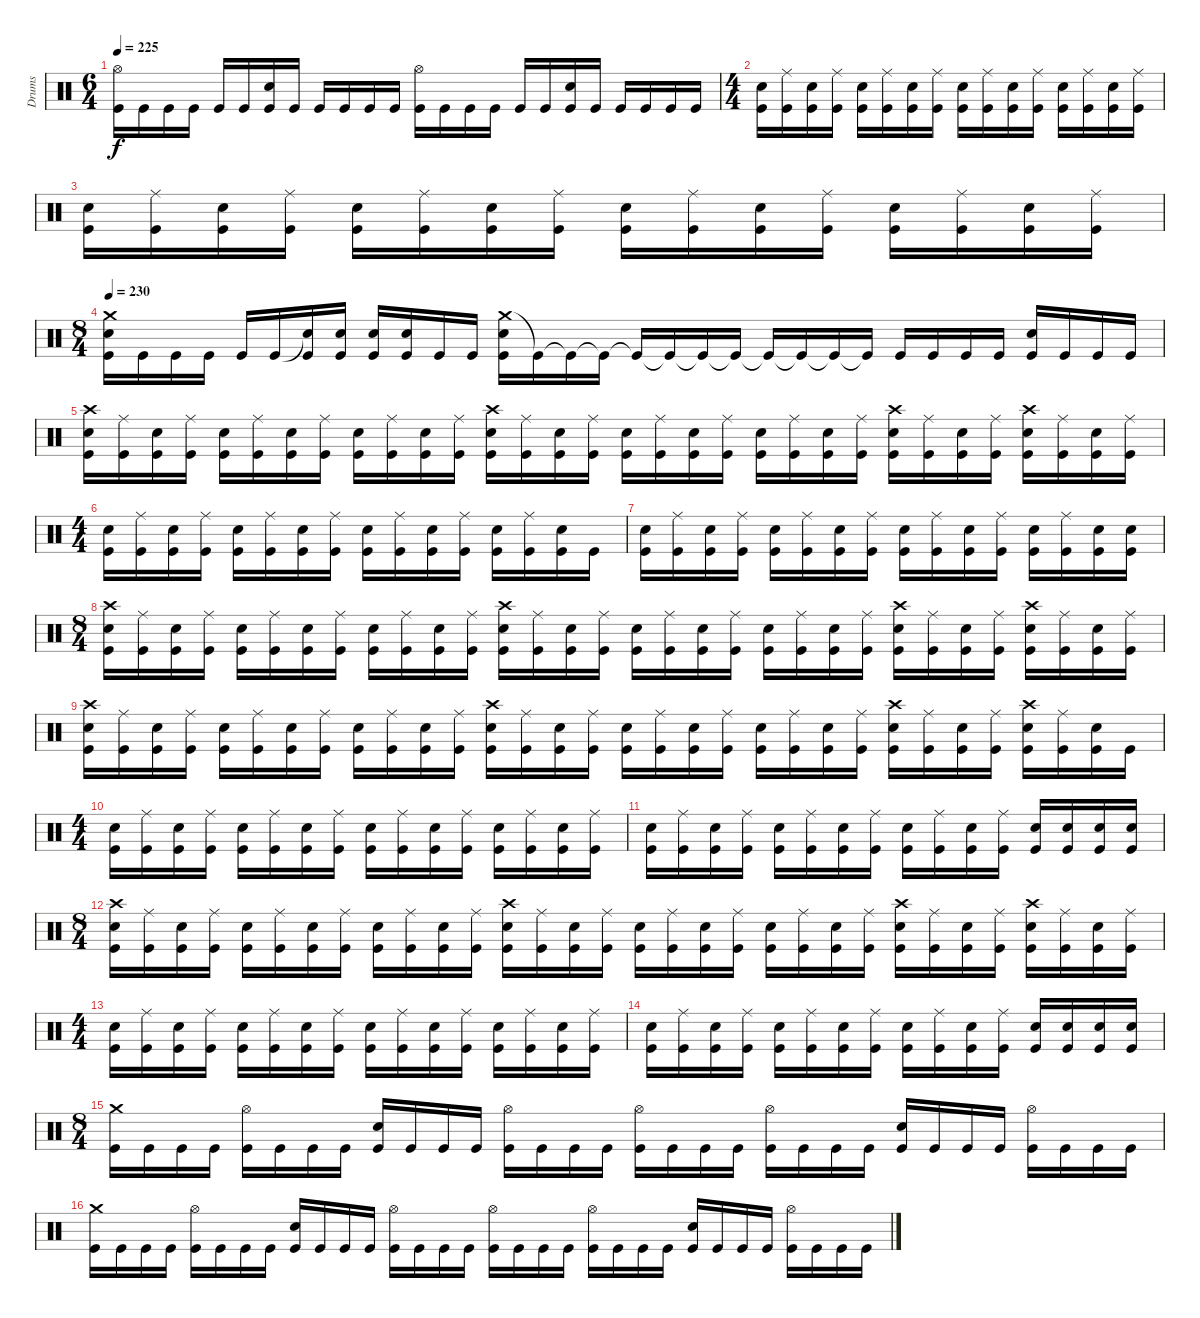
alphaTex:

\track ("Drums" "Drums") {instrument percussion}
\staff {score}
\articulation defaults
\ts (6 4)
\tempo 225
\clef neutral
\ks c
("Hi-Hat (open)" "Kick (hit)").16{dy f} "Kick (hit)".16 "Kick (hit)".16 "Kick (hit)".16 "Kick (hit)".16 "Kick (hit)".16 ("Electric Snare (hit)" "Kick (hit)").16 "Kick (hit)".16 "Kick (hit)".16 "Kick (hit)".16 "Kick (hit)".16 "Kick (hit)".16 ("Hi-Hat (open)" "Kick (hit)").16 "Kick (hit)".16 "Kick (hit)".16 "Kick (hit)".16 "Kick (hit)".16 "Kick (hit)".16 ("Electric Snare (hit)" "Kick (hit)").16 "Kick (hit)".16 "Kick (hit)".16 "Kick (hit)".16 "Kick (hit)".16 "Kick (hit)".16 |
\ts (4 4)
("Electric Snare (hit)" "Kick (hit)").16 ("Ride (middle)" "Kick (hit)").16 ("Electric Snare (hit)" "Kick (hit)").16 ("Ride (middle)" "Kick (hit)").16 ("Electric Snare (hit)" "Kick (hit)").16 ("Ride (middle)" "Kick (hit)").16 ("Electric Snare (hit)" "Kick (hit)").16 ("Ride (middle)" "Kick (hit)").16 ("Electric Snare (hit)" "Kick (hit)").16 ("Ride (middle)" "Kick (hit)").16 ("Electric Snare (hit)" "Kick (hit)").16 ("Ride (middle)" "Kick (hit)").16 ("Electric Snare (hit)" "Kick (hit)").16 ("Ride (middle)" "Kick (hit)").16 ("Electric Snare (hit)" "Kick (hit)").16 ("Ride (middle)" "Kick (hit)").16 |
("Electric Snare (hit)" "Kick (hit)").16 ("Ride (middle)" "Kick (hit)").16 ("Electric Snare (hit)" "Kick (hit)").16 ("Ride (middle)" "Kick (hit)").16 ("Electric Snare (hit)" "Kick (hit)").16 ("Ride (middle)" "Kick (hit)").16 ("Electric Snare (hit)" "Kick (hit)").16 ("Ride (middle)" "Kick (hit)").16 ("Electric Snare (hit)" "Kick (hit)").16 ("Ride (middle)" "Kick (hit)").16 ("Electric Snare (hit)" "Kick (hit)").16 ("Ride (middle)" "Kick (hit)").16 ("Electric Snare (hit)" "Kick (hit)").16 ("Ride (middle)" "Kick (hit)").16 ("Electric Snare (hit)" "Kick (hit)").16 ("Ride (middle)" "Kick (hit)").16 |
\ts (8 4)
\tempo 230
("Crash medium (hit)" "Electric Snare (hit)" "Kick (hit)").16 "Kick (hit)".16 "Kick (hit)".16 "Kick (hit)".16 "Kick (hit)".16 "Kick (hit)".16 ("Electric Snare (hit)"{t} "Kick (hit)").16 ("Electric Snare (hit)" "Kick (hit)").16 ("Electric Snare (hit)" "Kick (hit)").16 ("Electric Snare (hit)" "Kick (hit)").16 "Kick (hit)".16 "Kick (hit)".16 ("Crash medium (hit)" "Electric Snare (hit)" "Kick (hit)").16 "Kick (hit)"{t}.16 "Kick (hit)"{t}.16 "Kick (hit)"{t}.16 "Kick (hit)"{t}.16 "Kick (hit)"{t}.16 "Kick (hit)"{t}.16 "Kick (hit)"{t}.16 "Kick (hit)"{t}.16 "Kick (hit)"{t}.16 "Kick (hit)"{t}.16 "Kick (hit)"{t}.16 "Kick (hit)".16 "Kick (hit)".16 "Kick (hit)".16 "Kick (hit)".16 ("Electric Snare (hit)" "Kick (hit)").16 "Kick (hit)".16 "Kick (hit)".16 "Kick (hit)".16 |
("Crash high (hit)" "Electric Snare (hit)" "Kick (hit)").16 ("Ride (middle)" "Kick (hit)").16 ("Electric Snare (hit)" "Kick (hit)").16 ("Ride (middle)" "Kick (hit)").16 ("Electric Snare (hit)" "Kick (hit)").16 ("Ride (middle)" "Kick (hit)").16 ("Electric Snare (hit)" "Kick (hit)").16 ("Ride (middle)" "Kick (hit)").16 ("Electric Snare (hit)" "Kick (hit)").16 ("Ride (middle)" "Kick (hit)").16 ("Electric Snare (hit)" "Kick (hit)").16 ("Ride (middle)" "Kick (hit)").16 ("Crash high (hit)" "Electric Snare (hit)" "Kick (hit)").16 ("Ride (middle)" "Kick (hit)").16 ("Electric Snare (hit)" "Kick (hit)").16 ("Ride (middle)" "Kick (hit)").16 ("Electric Snare (hit)" "Kick (hit)").16 ("Ride (middle)" "Kick (hit)").16 ("Electric Snare (hit)" "Kick (hit)").16 ("Ride (middle)" "Kick (hit)").16 ("Electric Snare (hit)" "Kick (hit)").16 ("Ride (middle)" "Kick (hit)").16 ("Electric Snare (hit)" "Kick (hit)").16 ("Ride (middle)" "Kick (hit)").16 ("Crash high (hit)" "Electric Snare (hit)" "Kick (hit)").16 ("Ride (middle)" "Kick (hit)").16 ("Electric Snare (hit)" "Kick (hit)").16 ("Ride (middle)" "Kick (hit)").16 ("Crash high (hit)" "Electric Snare (hit)" "Kick (hit)").16 ("Ride (middle)" "Kick (hit)").16 ("Electric Snare (hit)" "Kick (hit)").16 ("Ride (middle)" "Kick (hit)").16 |
\ts (4 4)
("Electric Snare (hit)" "Kick (hit)").16 ("Ride (middle)" "Kick (hit)").16 ("Electric Snare (hit)" "Kick (hit)").16 ("Ride (middle)" "Kick (hit)").16 ("Electric Snare (hit)" "Kick (hit)").16 ("Ride (middle)" "Kick (hit)").16 ("Electric Snare (hit)" "Kick (hit)").16 ("Ride (middle)" "Kick (hit)").16 ("Electric Snare (hit)" "Kick (hit)").16 ("Ride (middle)" "Kick (hit)").16 ("Electric Snare (hit)" "Kick (hit)").16 ("Ride (middle)" "Kick (hit)").16 ("Electric Snare (hit)" "Kick (hit)").16 ("Ride (middle)" "Kick (hit)").16 ("Electric Snare (hit)" "Kick (hit)").16 "Kick (hit)".16 |
("Electric Snare (hit)" "Kick (hit)").16 ("Ride (middle)" "Kick (hit)").16 ("Electric Snare (hit)" "Kick (hit)").16 ("Ride (middle)" "Kick (hit)").16 ("Electric Snare (hit)" "Kick (hit)").16 ("Ride (middle)" "Kick (hit)").16 ("Electric Snare (hit)" "Kick (hit)").16 ("Ride (middle)" "Kick (hit)").16 ("Electric Snare (hit)" "Kick (hit)").16 ("Ride (middle)" "Kick (hit)").16 ("Electric Snare (hit)" "Kick (hit)").16 ("Ride (middle)" "Kick (hit)").16 ("Electric Snare (hit)" "Kick (hit)").16 ("Ride (middle)" "Kick (hit)").16 ("Electric Snare (hit)" "Kick (hit)").16 ("Electric Snare (hit)" "Kick (hit)").16 |
\ts (8 4)
("Crash high (hit)" "Electric Snare (hit)" "Kick (hit)").16 ("Ride (middle)" "Kick (hit)").16 ("Electric Snare (hit)" "Kick (hit)").16 ("Ride (middle)" "Kick (hit)").16 ("Electric Snare (hit)" "Kick (hit)").16 ("Ride (middle)" "Kick (hit)").16 ("Electric Snare (hit)" "Kick (hit)").16 ("Ride (middle)" "Kick (hit)").16 ("Electric Snare (hit)" "Kick (hit)").16 ("Ride (middle)" "Kick (hit)").16 ("Electric Snare (hit)" "Kick (hit)").16 ("Ride (middle)" "Kick (hit)").16 ("Crash high (hit)" "Electric Snare (hit)" "Kick (hit)").16 ("Ride (middle)" "Kick (hit)").16 ("Electric Snare (hit)" "Kick (hit)").16 ("Ride (middle)" "Kick (hit)").16 ("Electric Snare (hit)" "Kick (hit)").16 ("Ride (middle)" "Kick (hit)").16 ("Electric Snare (hit)" "Kick (hit)").16 ("Ride (middle)" "Kick (hit)").16 ("Electric Snare (hit)" "Kick (hit)").16 ("Ride (middle)" "Kick (hit)").16 ("Electric Snare (hit)" "Kick (hit)").16 ("Ride (middle)" "Kick (hit)").16 ("Crash high (hit)" "Electric Snare (hit)" "Kick (hit)").16 ("Ride (middle)" "Kick (hit)").16 ("Electric Snare (hit)" "Kick (hit)").16 ("Ride (middle)" "Kick (hit)").16 ("Crash high (hit)" "Electric Snare (hit)" "Kick (hit)").16 ("Ride (middle)" "Kick (hit)").16 ("Electric Snare (hit)" "Kick (hit)").16 ("Ride (middle)" "Kick (hit)").16 |
("Crash high (hit)" "Electric Snare (hit)" "Kick (hit)").16 ("Ride (middle)" "Kick (hit)").16 ("Electric Snare (hit)" "Kick (hit)").16 ("Ride (middle)" "Kick (hit)").16 ("Electric Snare (hit)" "Kick (hit)").16 ("Ride (middle)" "Kick (hit)").16 ("Electric Snare (hit)" "Kick (hit)").16 ("Ride (middle)" "Kick (hit)").16 ("Electric Snare (hit)" "Kick (hit)").16 ("Ride (middle)" "Kick (hit)").16 ("Electric Snare (hit)" "Kick (hit)").16 ("Ride (middle)" "Kick (hit)").16 ("Crash high (hit)" "Electric Snare (hit)" "Kick (hit)").16 ("Ride (middle)" "Kick (hit)").16 ("Electric Snare (hit)" "Kick (hit)").16 ("Ride (middle)" "Kick (hit)").16 ("Electric Snare (hit)" "Kick (hit)").16 ("Ride (middle)" "Kick (hit)").16 ("Electric Snare (hit)" "Kick (hit)").16 ("Ride (middle)" "Kick (hit)").16 ("Electric Snare (hit)" "Kick (hit)").16 ("Ride (middle)" "Kick (hit)").16 ("Electric Snare (hit)" "Kick (hit)").16 ("Ride (middle)" "Kick (hit)").16 ("Crash high (hit)" "Electric Snare (hit)" "Kick (hit)").16 ("Ride (middle)" "Kick (hit)").16 ("Electric Snare (hit)" "Kick (hit)").16 ("Ride (middle)" "Kick (hit)").16 ("Crash high (hit)" "Electric Snare (hit)" "Kick (hit)").16 ("Ride (middle)" "Kick (hit)").16 ("Electric Snare (hit)" "Kick (hit)").16 "Kick (hit)".16 |
\ts (4 4)
("Electric Snare (hit)" "Kick (hit)").16 ("Ride (middle)" "Kick (hit)").16 ("Electric Snare (hit)" "Kick (hit)").16 ("Ride (middle)" "Kick (hit)").16 ("Electric Snare (hit)" "Kick (hit)").16 ("Ride (middle)" "Kick (hit)").16 ("Electric Snare (hit)" "Kick (hit)").16 ("Ride (middle)" "Kick (hit)").16 ("Electric Snare (hit)" "Kick (hit)").16 ("Ride (middle)" "Kick (hit)").16 ("Electric Snare (hit)" "Kick (hit)").16 ("Ride (middle)" "Kick (hit)").16 ("Electric Snare (hit)" "Kick (hit)").16 ("Ride (middle)" "Kick (hit)").16 ("Electric Snare (hit)" "Kick (hit)").16 ("Ride (middle)" "Kick (hit)").16 |
("Electric Snare (hit)" "Kick (hit)").16 ("Ride (middle)" "Kick (hit)").16 ("Electric Snare (hit)" "Kick (hit)").16 ("Ride (middle)" "Kick (hit)").16 ("Electric Snare (hit)" "Kick (hit)").16 ("Ride (middle)" "Kick (hit)").16 ("Electric Snare (hit)" "Kick (hit)").16 ("Ride (middle)" "Kick (hit)").16 ("Electric Snare (hit)" "Kick (hit)").16 ("Ride (middle)" "Kick (hit)").16 ("Electric Snare (hit)" "Kick (hit)").16 ("Ride (middle)" "Kick (hit)").16 ("Electric Snare (hit)" "Kick (hit)").16 ("Electric Snare (hit)" "Kick (hit)").16 ("Electric Snare (hit)" "Kick (hit)").16 ("Electric Snare (hit)" "Kick (hit)").16 |
\ts (8 4)
("Crash high (hit)" "Electric Snare (hit)" "Kick (hit)").16 ("Ride (middle)" "Kick (hit)").16 ("Electric Snare (hit)" "Kick (hit)").16 ("Ride (middle)" "Kick (hit)").16 ("Electric Snare (hit)" "Kick (hit)").16 ("Ride (middle)" "Kick (hit)").16 ("Electric Snare (hit)" "Kick (hit)").16 ("Ride (middle)" "Kick (hit)").16 ("Electric Snare (hit)" "Kick (hit)").16 ("Ride (middle)" "Kick (hit)").16 ("Electric Snare (hit)" "Kick (hit)").16 ("Ride (middle)" "Kick (hit)").16 ("Crash high (hit)" "Electric Snare (hit)" "Kick (hit)").16 ("Ride (middle)" "Kick (hit)").16 ("Electric Snare (hit)" "Kick (hit)").16 ("Ride (middle)" "Kick (hit)").16 ("Electric Snare (hit)" "Kick (hit)").16 ("Ride (middle)" "Kick (hit)").16 ("Electric Snare (hit)" "Kick (hit)").16 ("Ride (middle)" "Kick (hit)").16 ("Electric Snare (hit)" "Kick (hit)").16 ("Ride (middle)" "Kick (hit)").16 ("Electric Snare (hit)" "Kick (hit)").16 ("Ride (middle)" "Kick (hit)").16 ("Crash high (hit)" "Electric Snare (hit)" "Kick (hit)").16 ("Ride (middle)" "Kick (hit)").16 ("Electric Snare (hit)" "Kick (hit)").16 ("Ride (middle)" "Kick (hit)").16 ("Crash high (hit)" "Electric Snare (hit)" "Kick (hit)").16 ("Ride (middle)" "Kick (hit)").16 ("Electric Snare (hit)" "Kick (hit)").16 ("Ride (middle)" "Kick (hit)").16 |
\ts (4 4)
("Electric Snare (hit)" "Kick (hit)").16 ("Ride (middle)" "Kick (hit)").16 ("Electric Snare (hit)" "Kick (hit)").16 ("Ride (middle)" "Kick (hit)").16 ("Electric Snare (hit)" "Kick (hit)").16 ("Ride (middle)" "Kick (hit)").16 ("Electric Snare (hit)" "Kick (hit)").16 ("Ride (middle)" "Kick (hit)").16 ("Electric Snare (hit)" "Kick (hit)").16 ("Ride (middle)" "Kick (hit)").16 ("Electric Snare (hit)" "Kick (hit)").16 ("Ride (middle)" "Kick (hit)").16 ("Electric Snare (hit)" "Kick (hit)").16 ("Ride (middle)" "Kick (hit)").16 ("Electric Snare (hit)" "Kick (hit)").16 ("Ride (middle)" "Kick (hit)").16 |
("Electric Snare (hit)" "Kick (hit)").16 ("Ride (middle)" "Kick (hit)").16 ("Electric Snare (hit)" "Kick (hit)").16 ("Ride (middle)" "Kick (hit)").16 ("Electric Snare (hit)" "Kick (hit)").16 ("Ride (middle)" "Kick (hit)").16 ("Electric Snare (hit)" "Kick (hit)").16 ("Ride (middle)" "Kick (hit)").16 ("Electric Snare (hit)" "Kick (hit)").16 ("Ride (middle)" "Kick (hit)").16 ("Electric Snare (hit)" "Kick (hit)").16 ("Ride (middle)" "Kick (hit)").16 ("Electric Snare (hit)" "Kick (hit)").16 ("Electric Snare (hit)" "Kick (hit)").16 ("Electric Snare (hit)" "Kick (hit)").16 ("Electric Snare (hit)" "Kick (hit)").16 |
\ts (8 4)
("Crash medium (hit)" "Kick (hit)").16 "Kick (hit)".16 "Kick (hit)".16 "Kick (hit)".16 ("Hi-Hat (open)" "Kick (hit)").16 "Kick (hit)".16 "Kick (hit)".16 "Kick (hit)".16 ("Electric Snare (hit)" "Kick (hit)").16 "Kick (hit)".16 "Kick (hit)".16 "Kick (hit)".16 ("Hi-Hat (open)" "Kick (hit)").16 "Kick (hit)".16 "Kick (hit)".16 "Kick (hit)".16 ("Hi-Hat (open)" "Kick (hit)").16 "Kick (hit)".16 "Kick (hit)".16 "Kick (hit)".16 ("Hi-Hat (open)" "Kick (hit)").16 "Kick (hit)".16 "Kick (hit)".16 "Kick (hit)".16 ("Electric Snare (hit)" "Kick (hit)").16 "Kick (hit)".16 "Kick (hit)".16 "Kick (hit)".16 ("Hi-Hat (open)" "Kick (hit)").16 "Kick (hit)".16 "Kick (hit)".16 "Kick (hit)".16 |
("Crash medium (hit)" "Kick (hit)").16 "Kick (hit)".16 "Kick (hit)".16 "Kick (hit)".16 ("Hi-Hat (open)" "Kick (hit)").16 "Kick (hit)".16 "Kick (hit)".16 "Kick (hit)".16 ("Electric Snare (hit)" "Kick (hit)").16 "Kick (hit)".16 "Kick (hit)".16 "Kick (hit)".16 ("Hi-Hat (open)" "Kick (hit)").16 "Kick (hit)".16 "Kick (hit)".16 "Kick (hit)".16 ("Hi-Hat (open)" "Kick (hit)").16 "Kick (hit)".16 "Kick (hit)".16 "Kick (hit)".16 ("Hi-Hat (open)" "Kick (hit)").16 "Kick (hit)".16 "Kick (hit)".16 "Kick (hit)".16 ("Electric Snare (hit)" "Kick (hit)").16 "Kick (hit)".16 "Kick (hit)".16 "Kick (hit)".16 ("Hi-Hat (open)" "Kick (hit)").16 "Kick (hit)".16 "Kick (hit)".16 "Kick (hit)".16
